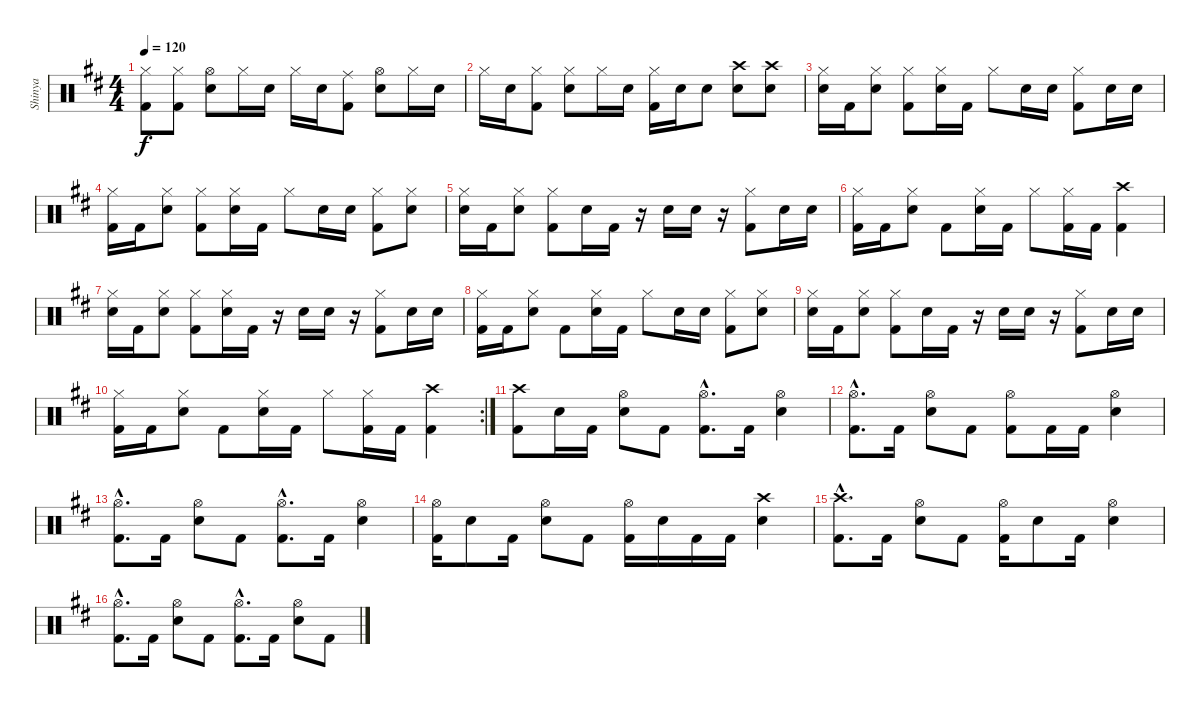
\track ("Shinya" "Shinya") {instrument percussion}
\staff {score}
\articulation defaults
\ts (4 4)
\tempo 120
\clef neutral
\ks bminor
("Kick (hit) 2" "Hi-Hat (closed)").8{dy f} ("Hi-Hat (closed)" "Kick (hit) 2").8 ("Hi-Hat (open)" "Snare (hit) 2").8 "Hi-Hat (closed)".16 "Snare (hit) 2".16 "Hi-Hat (closed)".16 "Snare (hit) 2".16 ("Ride (middle)" "Kick (hit) 2").8 ("Hi-Hat (open)" "Snare (hit) 2").8 "Hi-Hat (closed)".16 "Snare (hit) 2".16 |
"Hi-Hat (closed)".16 "Snare (hit) 2".16 ("Hi-Hat (closed)" "Kick (hit) 2").8 ("Hi-Hat (closed)" "Snare (hit) 2").8 "Hi-Hat (closed)".16 "Snare (hit) 2".16 ("Hi-Hat (closed)" "Kick (hit) 2").16 "Snare (hit) 2".16 "Snare (hit) 2".8 ("Crash high (hit)" "Snare (hit) 2").8 ("Crash high (hit)" "Snare (hit) 2").8 |
("Hi-Hat (closed)" "Snare (hit) 2").16 "Kick (hit) 2".16 ("Hi-Hat (closed)" "Snare (hit) 2").8 ("Hi-Hat (closed)" "Kick (hit) 2").8 ("Hi-Hat (closed)" "Snare (hit) 2").16 "Kick (hit) 2".16 "Hi-Hat (closed)".8 "Snare (hit) 2".16 "Snare (hit) 2".16 ("Hi-Hat (closed)" "Kick (hit) 2").8 "Snare (hit) 2".16 "Snare (hit) 2".16 |
("Hi-Hat (closed)" "Kick (hit) 2").16 "Kick (hit) 2".16 ("Snare (hit) 2" "Hi-Hat (closed)").8 ("Hi-Hat (closed)" "Kick (hit) 2").8 ("Hi-Hat (closed)" "Snare (hit) 2").16 "Kick (hit) 2".16 "Hi-Hat (closed)".8 "Snare (hit) 2".16 "Snare (hit) 2".16 ("Hi-Hat (closed)" "Kick (hit) 2").8 ("Hi-Hat (closed)" "Snare (hit) 2").8 |
("Hi-Hat (closed)" "Snare (hit) 2").16 "Kick (hit) 2".16 ("Hi-Hat (closed)" "Snare (hit) 2").8 ("Hi-Hat (closed)" "Kick (hit) 2").8 "Snare (hit) 2".16 "Kick (hit) 2".16 r.16 "Snare (hit) 2".16 "Snare (hit) 2".16 r.16 ("Hi-Hat (closed)" "Kick (hit) 2").8 "Snare (hit) 2".16 "Snare (hit) 2".16 |
("Hi-Hat (closed)" "Kick (hit) 2").16 "Kick (hit) 2".16 ("Hi-Hat (closed)" "Snare (hit) 2").8 "Kick (hit) 2".8 ("Hi-Hat (closed)" "Snare (hit) 2").16 "Kick (hit) 2".16 "Hi-Hat (closed)".8 ("Hi-Hat (closed)" "Kick (hit) 2").16 "Kick (hit) 2".16 ("Crash high (hit)" "Kick (hit) 2").4 |
("Hi-Hat (closed)" "Snare (hit) 2").16 "Kick (hit) 2".16 ("Hi-Hat (closed)" "Snare (hit) 2").8 ("Hi-Hat (closed)" "Kick (hit) 2").8 ("Hi-Hat (closed)" "Snare (hit) 2").16 "Kick (hit) 2".16 r.16 "Snare (hit) 2".16 "Snare (hit) 2".16 r.16 ("Hi-Hat (closed)" "Kick (hit) 2").8 "Snare (hit) 2".16 "Snare (hit) 2".16 |
("Hi-Hat (closed)" "Kick (hit) 2").16 "Kick (hit) 2".16 ("Snare (hit) 2" "Hi-Hat (closed)").8 "Kick (hit) 2".8 ("Hi-Hat (closed)" "Snare (hit) 2").16 "Kick (hit) 2".16 "Hi-Hat (closed)".8 "Snare (hit) 2".16 "Snare (hit) 2".16 ("Hi-Hat (closed)" "Kick (hit) 2").8 ("Hi-Hat (closed)" "Snare (hit) 2").8 |
("Hi-Hat (closed)" "Snare (hit) 2").16 "Kick (hit) 2".16 ("Hi-Hat (closed)" "Snare (hit) 2").8 ("Hi-Hat (closed)" "Kick (hit) 2").8 "Snare (hit) 2".16 "Kick (hit) 2".16 r.16 "Snare (hit) 2".16 "Snare (hit) 2".16 r.16 ("Hi-Hat (closed)" "Kick (hit) 2").8 "Snare (hit) 2".16 "Snare (hit) 2".16 |
\rc 2
("Hi-Hat (closed)" "Kick (hit) 2").16 "Kick (hit) 2".16 ("Hi-Hat (closed)" "Snare (hit) 2").8 "Kick (hit) 2".8 ("Hi-Hat (closed)" "Snare (hit) 2").16 "Kick (hit) 2".16 "Hi-Hat (closed)".8 ("Hi-Hat (closed)" "Kick (hit) 2").16 "Kick (hit) 2".16 ("Crash high (hit)" "Kick (hit) 2").4 |
("Crash high (hit)" "Kick (hit) 2").8 "Snare (hit) 2".16 "Kick (hit) 2".16 ("Hi-Hat (open)" "Snare (hit) 2").8 "Kick (hit) 2".8 ("Hi-Hat (open)"{hac} "Kick (hit) 2"{hac}).8{d} "Kick (hit) 2".16 ("Snare (hit) 2" "Hi-Hat (open)").4 |
("Hi-Hat (open)"{hac} "Kick (hit) 2"{hac}).8{d} "Kick (hit) 2".16 ("Hi-Hat (open)" "Snare (hit) 2").8 "Kick (hit) 2".8 ("Hi-Hat (open)" "Kick (hit) 2").8 "Kick (hit) 2".16 "Kick (hit) 2".16 ("Hi-Hat (open)" "Snare (hit) 2").4 |
("Hi-Hat (open)"{hac} "Kick (hit) 2"{hac}).8{d} "Kick (hit) 2".16 ("Hi-Hat (open)" "Snare (hit) 2").8 "Kick (hit) 2".8 ("Hi-Hat (open)"{hac} "Kick (hit) 2"{hac}).8{d} "Kick (hit) 2".16 ("Hi-Hat (open)" "Snare (hit) 2").4 |
("Hi-Hat (open)" "Kick (hit) 2").16 "Snare (hit) 2".8 "Kick (hit) 2".16 ("Hi-Hat (open)" "Snare (hit) 2").8 "Kick (hit) 2".8 ("Hi-Hat (open)" "Kick (hit) 2").16 "Snare (hit) 2".16 "Kick (hit) 2".16 "Kick (hit) 2".16 ("Crash high (hit)" "Snare (hit) 2").4 |
("Crash high (hit)"{hac} "Kick (hit) 2"{hac}).8{d} "Kick (hit) 2".16 ("Hi-Hat (open)" "Snare (hit) 2").8 "Kick (hit) 2".8 ("Hi-Hat (open)" "Kick (hit) 2").16 "Snare (hit) 2".8 "Kick (hit) 2".16 ("Hi-Hat (open)" "Snare (hit) 2").4 |
("Hi-Hat (open)"{hac} "Kick (hit) 2"{hac}).8{d} "Kick (hit) 2".16 ("Hi-Hat (open)" "Snare (hit) 2").8 "Kick (hit) 2".8 ("Hi-Hat (open)"{hac} "Kick (hit) 2"{hac}).8{d} "Kick (hit) 2".16 ("Hi-Hat (open)" "Snare (hit) 2").8 "Kick (hit) 2".8
